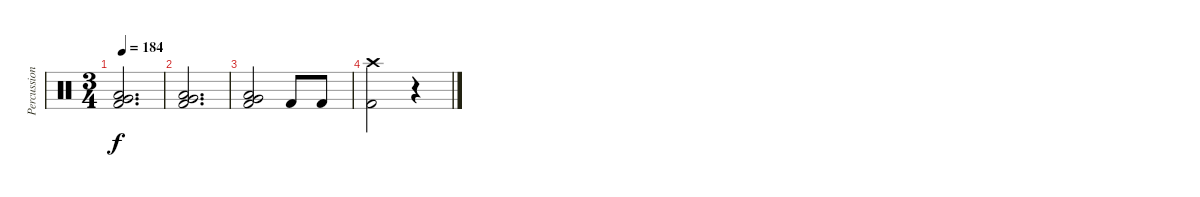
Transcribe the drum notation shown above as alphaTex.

\track ("Percussions" "Percussion") {instrument percussion}
\staff {score}
\articulation defaults
\ts (3 4)
\tempo 184
\clef neutral
\ks c
("Low Floor Tom (hit)" "Very Low Tom (hit)" "Kick (hit) 2").2{d dy f} |
("Low Floor Tom (hit)" "Very Low Tom (hit)" "Kick (hit) 2").2{d} |
("Low Floor Tom (hit)" "Very Low Tom (hit)" "Kick (hit) 2").2 "Kick (hit) 2".8 "Kick (hit) 2".8 |
("Crash high (hit)" "Kick (hit) 2").2 r.4
